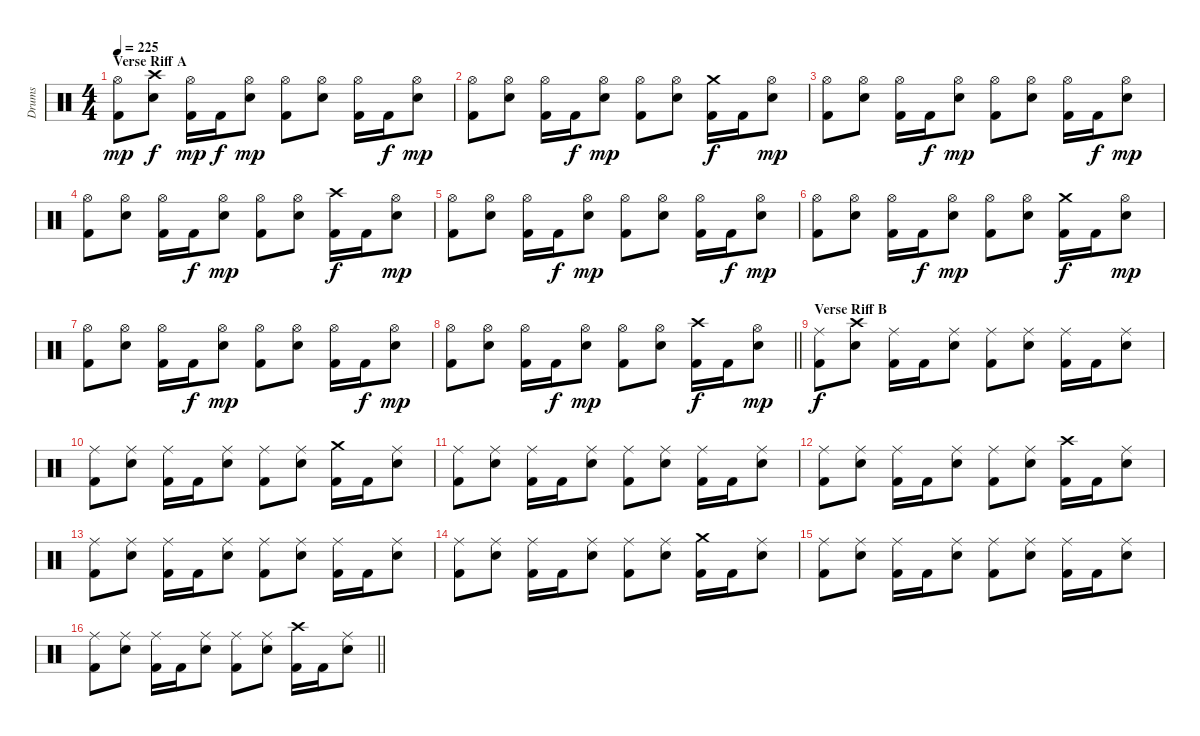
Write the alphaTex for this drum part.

\track ("Drums" "Drums") {instrument percussion}
\staff {score}
\articulation defaults
\ts (4 4)
\section ("" "Verse Riff A")
\tempo 225
\clef neutral
\ks c
("Hi-Hat (open)" "Kick (hit) 2").8{dy mp} ("Crash high (hit)" "Snare (hit) 2").8{dy f} ("Hi-Hat (open)" "Kick (hit) 2").16{dy mp} "Kick (hit) 2".16{dy f} ("Hi-Hat (open)" "Snare (hit) 2").8{dy mp} ("Hi-Hat (open)" "Kick (hit) 2").8 ("Hi-Hat (open)" "Snare (hit) 2").8 ("Hi-Hat (open)" "Kick (hit) 2").16 "Kick (hit) 2".16{dy f} ("Hi-Hat (open)" "Snare (hit) 2").8{dy mp} |
("Hi-Hat (open)" "Kick (hit) 2").8 ("Hi-Hat (open)" "Snare (hit) 2").8 ("Hi-Hat (open)" "Kick (hit) 2").16 "Kick (hit) 2".16{dy f} ("Hi-Hat (open)" "Snare (hit) 2").8{dy mp} ("Hi-Hat (open)" "Kick (hit) 2").8 ("Hi-Hat (open)" "Snare (hit) 2").8 ("Crash medium (hit)" "Kick (hit) 2").16{dy f} "Kick (hit) 2".16 ("Hi-Hat (open)" "Snare (hit) 2").8{dy mp} |
("Hi-Hat (open)" "Kick (hit) 2").8 ("Hi-Hat (open)" "Snare (hit) 2").8 ("Hi-Hat (open)" "Kick (hit) 2").16 "Kick (hit) 2".16{dy f} ("Hi-Hat (open)" "Snare (hit) 2").8{dy mp} ("Hi-Hat (open)" "Kick (hit) 2").8 ("Hi-Hat (open)" "Snare (hit) 2").8 ("Hi-Hat (open)" "Kick (hit) 2").16 "Kick (hit) 2".16{dy f} ("Hi-Hat (open)" "Snare (hit) 2").8{dy mp} |
("Hi-Hat (open)" "Kick (hit) 2").8 ("Hi-Hat (open)" "Snare (hit) 2").8 ("Hi-Hat (open)" "Kick (hit) 2").16 "Kick (hit) 2".16{dy f} ("Hi-Hat (open)" "Snare (hit) 2").8{dy mp} ("Hi-Hat (open)" "Kick (hit) 2").8 ("Hi-Hat (open)" "Snare (hit) 2").8 ("Crash high (hit)" "Kick (hit) 2").16{dy f} "Kick (hit) 2".16 ("Hi-Hat (open)" "Snare (hit) 2").8{dy mp} |
("Hi-Hat (open)" "Kick (hit) 2").8 ("Hi-Hat (open)" "Snare (hit) 2").8 ("Hi-Hat (open)" "Kick (hit) 2").16 "Kick (hit) 2".16{dy f} ("Hi-Hat (open)" "Snare (hit) 2").8{dy mp} ("Hi-Hat (open)" "Kick (hit) 2").8 ("Hi-Hat (open)" "Snare (hit) 2").8 ("Hi-Hat (open)" "Kick (hit) 2").16 "Kick (hit) 2".16{dy f} ("Hi-Hat (open)" "Snare (hit) 2").8{dy mp} |
("Hi-Hat (open)" "Kick (hit) 2").8 ("Hi-Hat (open)" "Snare (hit) 2").8 ("Hi-Hat (open)" "Kick (hit) 2").16 "Kick (hit) 2".16{dy f} ("Hi-Hat (open)" "Snare (hit) 2").8{dy mp} ("Hi-Hat (open)" "Kick (hit) 2").8 ("Hi-Hat (open)" "Snare (hit) 2").8 ("Crash medium (hit)" "Kick (hit) 2").16{dy f} "Kick (hit) 2".16 ("Hi-Hat (open)" "Snare (hit) 2").8{dy mp} |
("Hi-Hat (open)" "Kick (hit) 2").8 ("Hi-Hat (open)" "Snare (hit) 2").8 ("Hi-Hat (open)" "Kick (hit) 2").16 "Kick (hit) 2".16{dy f} ("Hi-Hat (open)" "Snare (hit) 2").8{dy mp} ("Hi-Hat (open)" "Kick (hit) 2").8 ("Hi-Hat (open)" "Snare (hit) 2").8 ("Hi-Hat (open)" "Kick (hit) 2").16 "Kick (hit) 2".16{dy f} ("Hi-Hat (open)" "Snare (hit) 2").8{dy mp} |
\barLineRight lightlight
("Hi-Hat (open)" "Kick (hit) 2").8 ("Hi-Hat (open)" "Snare (hit) 2").8 ("Hi-Hat (open)" "Kick (hit) 2").16 "Kick (hit) 2".16{dy f} ("Hi-Hat (open)" "Snare (hit) 2").8{dy mp} ("Hi-Hat (open)" "Kick (hit) 2").8 ("Hi-Hat (open)" "Snare (hit) 2").8 ("Crash high (hit)" "Kick (hit) 2").16{dy f} "Kick (hit) 2".16 ("Hi-Hat (open)" "Snare (hit) 2").8{dy mp} |
\section ("" "Verse Riff B")
("Ride (middle)" "Kick (hit) 2").8{dy f} ("Crash high (hit)" "Snare (hit) 2").8 ("Ride (middle)" "Kick (hit) 2").16 "Kick (hit) 2".16 ("Ride (middle)" "Snare (hit) 2").8 ("Ride (middle)" "Kick (hit) 2").8 ("Ride (middle)" "Snare (hit) 2").8 ("Ride (middle)" "Kick (hit) 2").16 "Kick (hit) 2".16 ("Ride (middle)" "Snare (hit) 2").8 |
("Ride (middle)" "Kick (hit) 2").8 ("Ride (middle)" "Snare (hit) 2").8 ("Ride (middle)" "Kick (hit) 2").16 "Kick (hit) 2".16 ("Ride (middle)" "Snare (hit) 2").8 ("Ride (middle)" "Kick (hit) 2").8 ("Ride (middle)" "Snare (hit) 2").8 ("Crash medium (hit)" "Kick (hit) 2").16 "Kick (hit) 2".16 ("Ride (middle)" "Snare (hit) 2").8 |
("Ride (middle)" "Kick (hit) 2").8 ("Ride (middle)" "Snare (hit) 2").8 ("Ride (middle)" "Kick (hit) 2").16 "Kick (hit) 2".16 ("Ride (middle)" "Snare (hit) 2").8 ("Ride (middle)" "Kick (hit) 2").8 ("Ride (middle)" "Snare (hit) 2").8 ("Ride (middle)" "Kick (hit) 2").16 "Kick (hit) 2".16 ("Ride (middle)" "Snare (hit) 2").8 |
("Ride (middle)" "Kick (hit) 2").8 ("Ride (middle)" "Snare (hit) 2").8 ("Ride (middle)" "Kick (hit) 2").16 "Kick (hit) 2".16 ("Ride (middle)" "Snare (hit) 2").8 ("Ride (middle)" "Kick (hit) 2").8 ("Ride (middle)" "Snare (hit) 2").8 ("Crash high (hit)" "Kick (hit) 2").16 "Kick (hit) 2".16 ("Ride (middle)" "Snare (hit) 2").8 |
("Ride (middle)" "Kick (hit) 2").8 ("Ride (middle)" "Snare (hit) 2").8 ("Ride (middle)" "Kick (hit) 2").16 "Kick (hit) 2".16 ("Ride (middle)" "Snare (hit) 2").8 ("Ride (middle)" "Kick (hit) 2").8 ("Ride (middle)" "Snare (hit) 2").8 ("Ride (middle)" "Kick (hit) 2").16 "Kick (hit) 2".16 ("Ride (middle)" "Snare (hit) 2").8 |
("Ride (middle)" "Kick (hit) 2").8 ("Ride (middle)" "Snare (hit) 2").8 ("Ride (middle)" "Kick (hit) 2").16 "Kick (hit) 2".16 ("Ride (middle)" "Snare (hit) 2").8 ("Ride (middle)" "Kick (hit) 2").8 ("Ride (middle)" "Snare (hit) 2").8 ("Crash medium (hit)" "Kick (hit) 2").16 "Kick (hit) 2".16 ("Ride (middle)" "Snare (hit) 2").8 |
("Ride (middle)" "Kick (hit) 2").8 ("Ride (middle)" "Snare (hit) 2").8 ("Ride (middle)" "Kick (hit) 2").16 "Kick (hit) 2".16 ("Ride (middle)" "Snare (hit) 2").8 ("Ride (middle)" "Kick (hit) 2").8 ("Ride (middle)" "Snare (hit) 2").8 ("Ride (middle)" "Kick (hit) 2").16 "Kick (hit) 2".16 ("Ride (middle)" "Snare (hit) 2").8 |
\barLineRight lightlight
("Ride (middle)" "Kick (hit) 2").8 ("Ride (middle)" "Snare (hit) 2").8 ("Ride (middle)" "Kick (hit) 2").16 "Kick (hit) 2".16 ("Ride (middle)" "Snare (hit) 2").8 ("Ride (middle)" "Kick (hit) 2").8 ("Ride (middle)" "Snare (hit) 2").8 ("Crash high (hit)" "Kick (hit) 2").16 "Kick (hit) 2".16 ("Ride (middle)" "Snare (hit) 2").8
